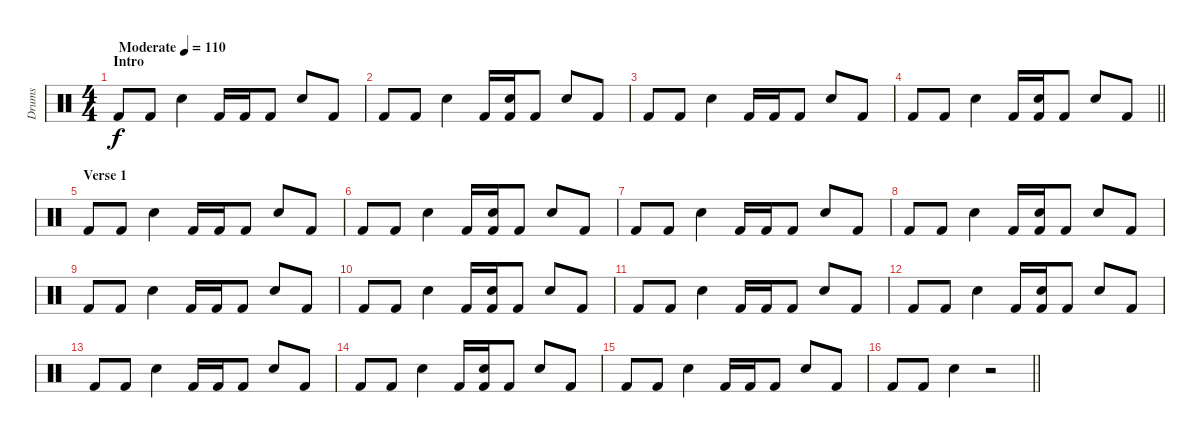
\track ("Drums" "Drums") {instrument percussion}
\staff {score}
\articulation defaults
\ts (4 4)
\section ("" "Intro")
\tempo (110 "Moderate")
\clef neutral
\ks c "Kick (hit) 2".8{dy f} "Kick (hit) 2".8 "Electric Snare (hit)".4 "Kick (hit) 2".16 "Kick (hit) 2".16 "Kick (hit) 2".8 "Electric Snare (hit)".8 "Kick (hit) 2".8
|
"Kick (hit) 2".8 "Kick (hit) 2".8 "Electric Snare (hit)".4 "Kick (hit) 2".16 ("Electric Snare (hit)" "Kick (hit) 2").16 "Kick (hit) 2".8 "Electric Snare (hit)".8 "Kick (hit) 2".8 |
"Kick (hit) 2".8 "Kick (hit) 2".8 "Electric Snare (hit)".4 "Kick (hit) 2".16 "Kick (hit) 2".16 "Kick (hit) 2".8 "Electric Snare (hit)".8 "Kick (hit) 2".8 |
\barLineRight lightlight "Kick (hit) 2".8 "Kick (hit) 2".8 "Electric Snare (hit)".4 "Kick (hit) 2".16
("Electric Snare (hit)" "Kick (hit) 2").16 "Kick (hit) 2".8 "Electric Snare (hit)".8 "Kick (hit) 2".8 |
\section ("" "Verse 1")
"Kick (hit) 2".8 "Kick (hit) 2".8 "Electric Snare (hit)".4 "Kick (hit) 2".16 "Kick (hit) 2".16 "Kick (hit) 2".8 "Electric Snare (hit)".8 "Kick (hit) 2".8 |
"Kick (hit) 2".8 "Kick (hit) 2".8 "Electric Snare (hit)".4 "Kick (hit) 2".16 ("Electric Snare (hit)" "Kick (hit) 2").16 "Kick (hit) 2".8 "Electric Snare (hit)".8 "Kick (hit) 2".8 |
"Kick (hit) 2".8 "Kick (hit) 2".8 "Electric Snare (hit)".4 "Kick (hit) 2".16 "Kick (hit) 2".16 "Kick (hit) 2".8 "Electric Snare (hit)".8 "Kick (hit) 2".8 |
"Kick (hit) 2".8 "Kick (hit) 2".8 "Electric Snare (hit)".4 "Kick (hit) 2".16 ("Electric Snare (hit)" "Kick (hit) 2").16 "Kick (hit) 2".8 "Electric Snare (hit)".8 "Kick (hit) 2".8 |
"Kick (hit) 2".8 "Kick (hit) 2".8 "Electric Snare (hit)".4 "Kick (hit) 2".16 "Kick (hit) 2".16 "Kick (hit) 2".8 "Electric Snare (hit)".8 "Kick (hit) 2".8 |
"Kick (hit) 2".8 "Kick (hit) 2".8 "Electric Snare (hit)".4 "Kick (hit) 2".16 ("Electric Snare (hit)" "Kick (hit) 2").16 "Kick (hit) 2".8 "Electric Snare (hit)".8 "Kick (hit) 2".8 |
"Kick (hit) 2".8 "Kick (hit) 2".8 "Electric Snare (hit)".4 "Kick (hit) 2".16 "Kick (hit) 2".16 "Kick (hit) 2".8 "Electric Snare (hit)".8 "Kick (hit) 2".8 |
"Kick (hit) 2".8 "Kick (hit) 2".8 "Electric Snare (hit)".4 "Kick (hit) 2".16 ("Electric Snare (hit)" "Kick (hit) 2").16 "Kick (hit) 2".8 "Electric Snare (hit)".8 "Kick (hit) 2".8 |
"Kick (hit) 2".8 "Kick (hit) 2".8 "Electric Snare (hit)".4 "Kick (hit) 2".16 "Kick (hit) 2".16 "Kick (hit) 2".8 "Electric Snare (hit)".8 "Kick (hit) 2".8 |
"Kick (hit) 2".8 "Kick (hit) 2".8 "Electric Snare (hit)".4 "Kick (hit) 2".16 ("Electric Snare (hit)" "Kick (hit) 2").16 "Kick (hit) 2".8 "Electric Snare (hit)".8 "Kick (hit) 2".8 |
"Kick (hit) 2".8 "Kick (hit) 2".8 "Electric Snare (hit)".4 "Kick (hit) 2".16 "Kick (hit) 2".16 "Kick (hit) 2".8 "Electric Snare (hit)".8 "Kick (hit) 2".8 |
\barLineRight lightlight "Kick (hit) 2".8 "Kick (hit) 2".8 "Electric Snare (hit)".4
r.2
